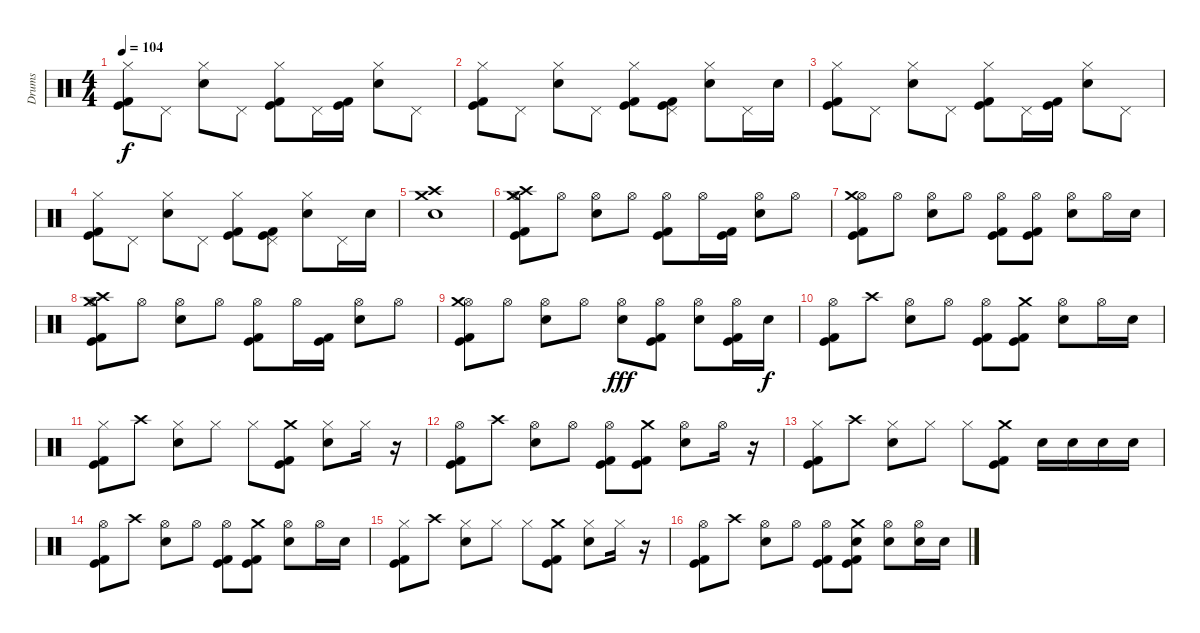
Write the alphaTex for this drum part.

\track ("Drums" "Drums") {instrument percussion}
\staff {score}
\articulation defaults
\ts (4 4)
\tempo 104
\clef neutral
\ks c
("Hi-Hat (closed)" "Kick (hit) 2" "Kick (hit)").8{dy f} "Pedal Hi-Hat (hit)".8 ("Hi-Hat (closed)" "Snare (hit) 2").8 "Pedal Hi-Hat (hit)".8 ("Hi-Hat (closed)" "Kick (hit)" "Kick (hit) 2").8 "Pedal Hi-Hat (hit)".16 ("Kick (hit)" "Kick (hit) 2").16 ("Hi-Hat (closed)" "Snare (hit) 2").8 "Pedal Hi-Hat (hit)".8 |
("Hi-Hat (closed)" "Kick (hit) 2" "Kick (hit)").8 "Pedal Hi-Hat (hit)".8 ("Hi-Hat (closed)" "Snare (hit) 2").8 "Pedal Hi-Hat (hit)".8 ("Hi-Hat (closed)" "Kick (hit)" "Kick (hit) 2").8 ("Pedal Hi-Hat (hit)" "Kick (hit)" "Kick (hit) 2").8 ("Hi-Hat (closed)" "Snare (hit) 2").8 "Pedal Hi-Hat (hit)".16 "Snare (hit) 2".16 |
("Hi-Hat (closed)" "Kick (hit) 2" "Kick (hit)").8 "Pedal Hi-Hat (hit)".8 ("Hi-Hat (closed)" "Snare (hit) 2").8 "Pedal Hi-Hat (hit)".8 ("Hi-Hat (closed)" "Kick (hit)" "Kick (hit) 2").8 "Pedal Hi-Hat (hit)".16 ("Kick (hit)" "Kick (hit) 2").16 ("Hi-Hat (closed)" "Snare (hit) 2").8 "Pedal Hi-Hat (hit)".8 |
("Hi-Hat (closed)" "Kick (hit) 2" "Kick (hit)").8 "Pedal Hi-Hat (hit)".8 ("Hi-Hat (closed)" "Snare (hit) 2").8 "Pedal Hi-Hat (hit)".8 ("Hi-Hat (closed)" "Kick (hit)" "Kick (hit) 2").8 ("Pedal Hi-Hat (hit)" "Kick (hit)" "Kick (hit) 2").8 ("Hi-Hat (closed)" "Snare (hit) 2").8 "Pedal Hi-Hat (hit)".16 "Snare (hit) 2".16 |
("Crash high (hit)" "Snare (hit) 2" "Crash medium (hit)").1 |
("Hi-Hat (open)" "Crash high (hit)" "Crash medium (hit)" "Kick (hit) 2" "Kick (hit)").8 "Hi-Hat (open)".8 ("Hi-Hat (open)" "Snare (hit) 2").8 "Hi-Hat (open)".8 ("Hi-Hat (open)" "Kick (hit)" "Kick (hit) 2").8 "Hi-Hat (open)".16 ("Kick (hit)" "Kick (hit) 2").16 ("Hi-Hat (open)" "Snare (hit) 2").8 "Hi-Hat (open)".8 |
("Hi-Hat (open)" "Crash medium (hit)" "Kick (hit) 2" "Kick (hit)").8 "Hi-Hat (open)".8 ("Hi-Hat (open)" "Snare (hit) 2").8 "Hi-Hat (open)".8 ("Hi-Hat (open)" "Kick (hit)" "Kick (hit) 2").8 ("Hi-Hat (open)" "Kick (hit)" "Kick (hit) 2").8 ("Hi-Hat (open)" "Snare (hit) 2").8 "Hi-Hat (open)".16 "Snare (hit) 2".16 |
("Hi-Hat (open)" "Crash high (hit)" "Crash medium (hit)" "Kick (hit) 2" "Kick (hit)").8 "Hi-Hat (open)".8 ("Hi-Hat (open)" "Snare (hit) 2").8 "Hi-Hat (open)".8 ("Hi-Hat (open)" "Kick (hit)" "Kick (hit) 2").8 "Hi-Hat (open)".16 ("Kick (hit)" "Kick (hit) 2").16 ("Hi-Hat (open)" "Snare (hit) 2").8 "Hi-Hat (open)".8 |
("Hi-Hat (open)" "Crash medium (hit)" "Kick (hit) 2" "Kick (hit)").8 "Hi-Hat (open)".8 ("Hi-Hat (open)" "Snare (hit) 2").8 "Hi-Hat (open)".8 ("Hi-Hat (open)" "Snare (hit) 2").8{dy fff} ("Hi-Hat (open)" "Kick (hit)" "Kick (hit) 2").8 ("Hi-Hat (open)" "Snare (hit) 2").8 ("Hi-Hat (open)" "Kick (hit) 2" "Kick (hit)").16 "Snare (hit) 2".16{dy f} |
("Hi-Hat (open)" "Kick (hit) 2" "Kick (hit)").8 "Crash high (hit)".8 ("Hi-Hat (open)" "Snare (hit) 2").8 "Hi-Hat (open)".8 ("Hi-Hat (open)" "Kick (hit)" "Kick (hit) 2").8 ("Crash medium (hit)" "Kick (hit)" "Kick (hit) 2").8 ("Hi-Hat (open)" "Snare (hit) 2").8 "Hi-Hat (open)".16 "Snare (hit) 2".16 |
("Hi-Hat (closed)" "Kick (hit) 2" "Kick (hit)").8 "Crash high (hit)".8 ("Hi-Hat (closed)" "Snare (hit) 2").8 "Hi-Hat (closed)".8 "Hi-Hat (closed)".8 ("Crash medium (hit)" "Kick (hit)" "Kick (hit) 2").8 ("Hi-Hat (closed)" "Snare (hit) 2").8 "Hi-Hat (closed)".16 r.16 |
("Hi-Hat (open)" "Kick (hit) 2" "Kick (hit)").8 "Crash high (hit)".8 ("Hi-Hat (open)" "Snare (hit) 2").8 "Hi-Hat (open)".8 ("Hi-Hat (open)" "Kick (hit)" "Kick (hit) 2").8 ("Crash medium (hit)" "Kick (hit)" "Kick (hit) 2").8 ("Hi-Hat (open)" "Snare (hit) 2").8 "Hi-Hat (open)".16 r.16 |
("Hi-Hat (closed)" "Kick (hit) 2" "Kick (hit)").8 "Crash high (hit)".8 ("Hi-Hat (closed)" "Snare (hit) 2").8 "Hi-Hat (closed)".8 "Hi-Hat (closed)".8 ("Crash medium (hit)" "Kick (hit)" "Kick (hit) 2").8 "Snare (hit) 2".16 "Snare (hit) 2".16 "Snare (hit) 2".16 "Snare (hit) 2".16 |
("Hi-Hat (open)" "Kick (hit) 2" "Kick (hit)").8 "Crash high (hit)".8 ("Hi-Hat (open)" "Snare (hit) 2").8 "Hi-Hat (open)".8 ("Hi-Hat (open)" "Kick (hit)" "Kick (hit) 2").8 ("Crash medium (hit)" "Kick (hit)" "Kick (hit) 2").8 ("Hi-Hat (open)" "Snare (hit) 2").8 "Hi-Hat (open)".16 "Snare (hit) 2".16 |
("Hi-Hat (closed)" "Kick (hit) 2" "Kick (hit)").8 "Crash high (hit)".8 ("Hi-Hat (closed)" "Snare (hit) 2").8 "Hi-Hat (closed)".8 "Hi-Hat (closed)".8 ("Crash medium (hit)" "Kick (hit)" "Kick (hit) 2").8 ("Hi-Hat (closed)" "Snare (hit) 2").8 "Hi-Hat (closed)".16 r.16 |
("Hi-Hat (open)" "Kick (hit) 2" "Kick (hit)").8 "Crash high (hit)".8 ("Hi-Hat (open)" "Snare (hit) 2").8 "Hi-Hat (open)".8 ("Hi-Hat (open)" "Kick (hit)" "Kick (hit) 2").8 ("Crash medium (hit)" "Snare (hit) 2" "Kick (hit)" "Kick (hit) 2").8 ("Hi-Hat (open)" "Snare (hit) 2").8 ("Hi-Hat (open)" "Snare (hit) 2").16 "Snare (hit) 2".16
